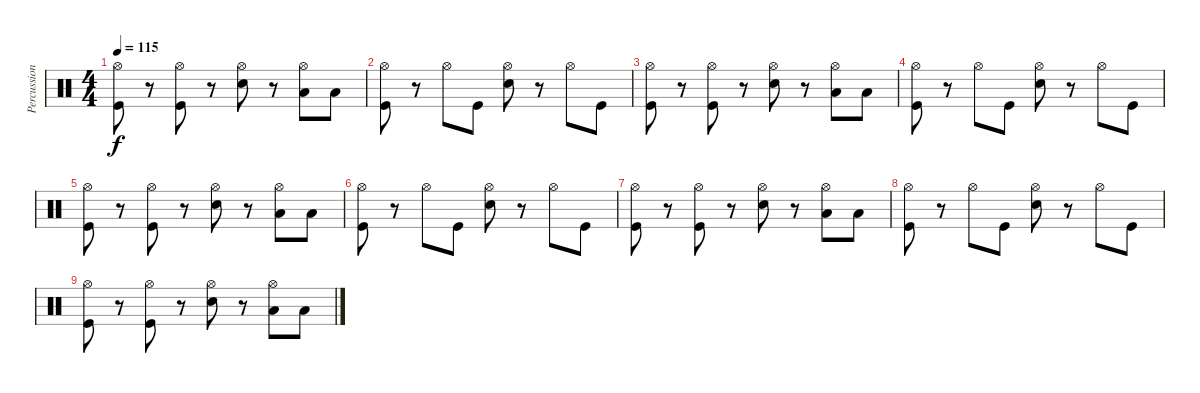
\track ("Percussion" "Percussion") {instrument percussion}
\staff {score}
\articulation defaults
\ts (4 4)
\tempo 115
\clef neutral
\ks c
("Hi-Hat (open)" "Kick (hit)").8{dy f} r.8 ("Hi-Hat (open)" "Kick (hit)").8 r.8 ("Hi-Hat (open)" "Snare (hit) 2").8 r.8 ("Hi-Hat (open)" "Low Tom (hit)").8 "Low Tom (hit)".8 |
("Hi-Hat (open)" "Kick (hit)").8 r.8 "Hi-Hat (open)".8 "Kick (hit)".8 ("Hi-Hat (open)" "Snare (hit) 2").8 r.8 "Hi-Hat (open)".8 "Kick (hit)".8 |
("Hi-Hat (open)" "Kick (hit)").8 r.8 ("Hi-Hat (open)" "Kick (hit)").8 r.8 ("Hi-Hat (open)" "Snare (hit) 2").8 r.8 ("Hi-Hat (open)" "Low Tom (hit)").8 "Low Tom (hit)".8 |
("Hi-Hat (open)" "Kick (hit)").8 r.8 "Hi-Hat (open)".8 "Kick (hit)".8 ("Hi-Hat (open)" "Snare (hit) 2").8 r.8 "Hi-Hat (open)".8 "Kick (hit)".8 |
("Hi-Hat (open)" "Kick (hit)").8 r.8 ("Hi-Hat (open)" "Kick (hit)").8 r.8 ("Hi-Hat (open)" "Snare (hit) 2").8 r.8 ("Hi-Hat (open)" "Low Tom (hit)").8 "Low Tom (hit)".8 |
("Hi-Hat (open)" "Kick (hit)").8 r.8 "Hi-Hat (open)".8 "Kick (hit)".8 ("Hi-Hat (open)" "Snare (hit) 2").8 r.8 "Hi-Hat (open)".8 "Kick (hit)".8 |
("Hi-Hat (open)" "Kick (hit)").8 r.8 ("Hi-Hat (open)" "Kick (hit)").8 r.8 ("Hi-Hat (open)" "Snare (hit) 2").8 r.8 ("Hi-Hat (open)" "Low Tom (hit)").8 "Low Tom (hit)".8 |
("Hi-Hat (open)" "Kick (hit)").8 r.8 "Hi-Hat (open)".8 "Kick (hit)".8 ("Hi-Hat (open)" "Snare (hit) 2").8 r.8 "Hi-Hat (open)".8 "Kick (hit)".8 |
("Hi-Hat (open)" "Kick (hit)").8 r.8 ("Hi-Hat (open)" "Kick (hit)").8 r.8 ("Hi-Hat (open)" "Snare (hit) 2").8 r.8 ("Hi-Hat (open)" "Low Tom (hit)").8 "Low Tom (hit)".8
